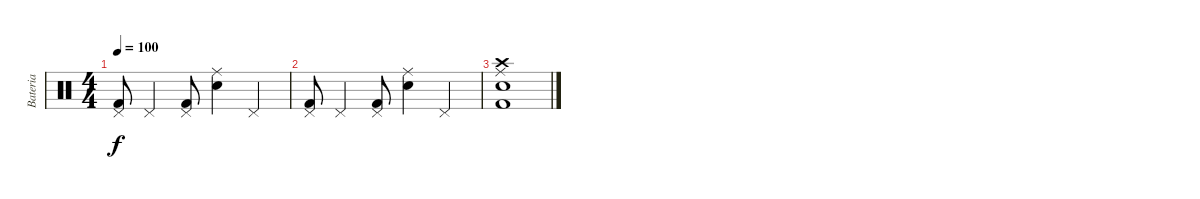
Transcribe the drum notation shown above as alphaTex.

\track ("Bateria" "Bateria") {instrument percussion}
\staff {score}
\articulation defaults
\ts (4 4)
\tempo 100
\clef neutral
\ks c
("Kick (hit) 2" "Pedal Hi-Hat (hit)").8{dy f} "Pedal Hi-Hat (hit)".4 ("Kick (hit) 2" "Pedal Hi-Hat (hit)").8 ("Electric Snare (hit)" "Ride (middle)").4 "Pedal Hi-Hat (hit)".4 |
("Kick (hit) 2" "Pedal Hi-Hat (hit)").8 "Pedal Hi-Hat (hit)".4 ("Kick (hit) 2" "Pedal Hi-Hat (hit)").8 ("Electric Snare (hit)" "Ride (middle)").4 "Pedal Hi-Hat (hit)".4 |
("Kick (hit) 2" "Crash high (hit)" "Electric Snare (hit)" "Ride (middle)").1
